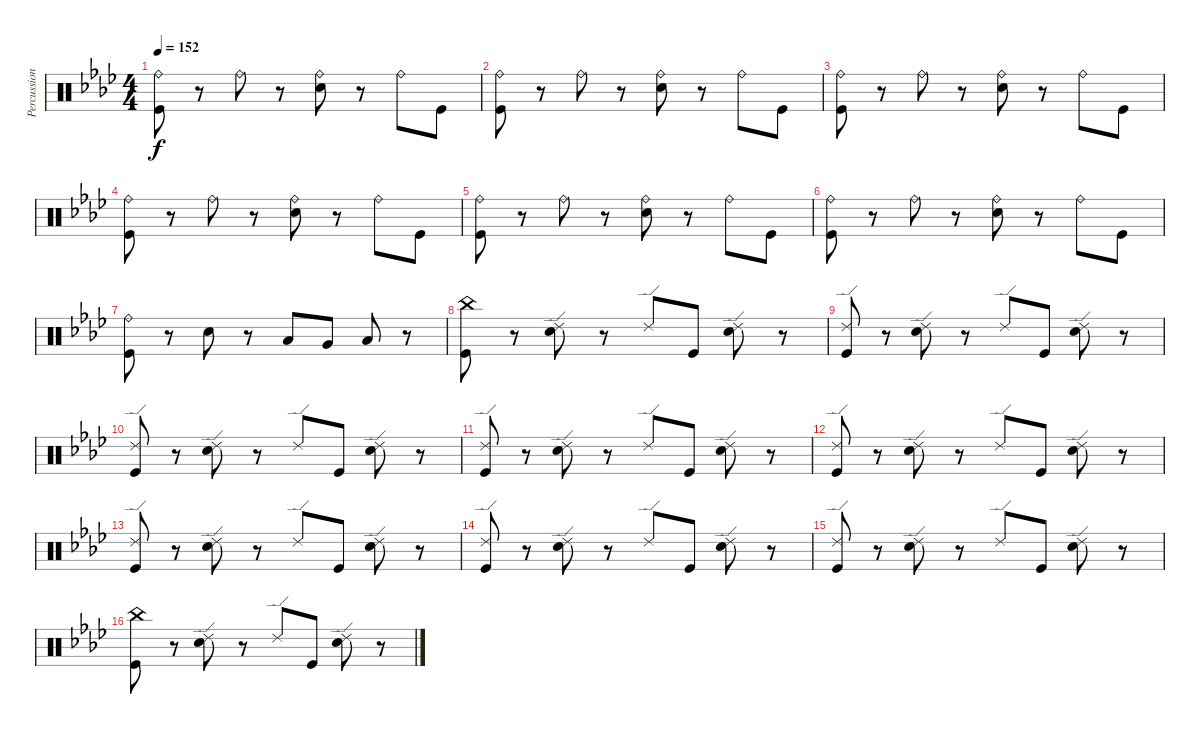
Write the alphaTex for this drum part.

\track ("Percussion" "Percussion") {instrument percussion}
\staff {score}
\articulation defaults
\ts (4 4)
\tempo 152
\clef neutral
\ks fminor
("Ride (bell)" "Kick (hit)").8{dy f} r.8 "Ride (bell)".8 r.8 ("Ride (bell)" "Snare (hit) 2").8 r.8 "Ride (bell)".8 "Kick (hit)".8 |
("Ride (bell)" "Kick (hit)").8 r.8 "Ride (bell)".8 r.8 ("Ride (bell)" "Snare (hit) 2").8 r.8 "Ride (bell)".8 "Kick (hit)".8 |
("Ride (bell)" "Kick (hit)").8 r.8 "Ride (bell)".8 r.8 ("Ride (bell)" "Snare (hit) 2").8 r.8 "Ride (bell)".8 "Kick (hit)".8 |
("Ride (bell)" "Kick (hit)").8 r.8 "Ride (bell)".8 r.8 ("Ride (bell)" "Snare (hit) 2").8 r.8 "Ride (bell)".8 "Kick (hit)".8 |
("Ride (bell)" "Kick (hit)").8 r.8 "Ride (bell)".8 r.8 ("Ride (bell)" "Snare (hit) 2").8 r.8 "Ride (bell)".8 "Kick (hit)".8 |
("Ride (bell)" "Kick (hit)").8 r.8 "Ride (bell)".8 r.8 ("Ride (bell)" "Snare (hit) 2").8 r.8 "Ride (bell)".8 "Kick (hit)".8 |
("Ride (bell)" "Kick (hit)").8 r.8 "Snare (hit) 2".8 r.8 "Low Tom (hit)".8 "Very Low Tom (hit)".8 "Low Floor Tom (hit)".8 r.8 |
("China (hit)" "Kick (hit)").8 r.8 ("Ride (edge) 2" "Snare (hit) 2").8 r.8 "Ride (edge) 2".8 "Kick (hit)".8 ("Ride (edge) 2" "Snare (hit) 2").8 r.8 |
("Ride (edge) 2" "Kick (hit)").8 r.8 ("Ride (edge) 2" "Snare (hit) 2").8 r.8 "Ride (edge) 2".8 "Kick (hit)".8 ("Ride (edge) 2" "Snare (hit) 2").8 r.8 |
("Ride (edge) 2" "Kick (hit)").8 r.8 ("Ride (edge) 2" "Snare (hit) 2").8 r.8 "Ride (edge) 2".8 "Kick (hit)".8 ("Ride (edge) 2" "Snare (hit) 2").8 r.8 |
("Ride (edge) 2" "Kick (hit)").8 r.8 ("Ride (edge) 2" "Snare (hit) 2").8 r.8 "Ride (edge) 2".8 "Kick (hit)".8 ("Ride (edge) 2" "Snare (hit) 2").8 r.8 |
("Ride (edge) 2" "Kick (hit)").8 r.8 ("Ride (edge) 2" "Snare (hit) 2").8 r.8 "Ride (edge) 2".8 "Kick (hit)".8 ("Ride (edge) 2" "Snare (hit) 2").8 r.8 |
("Ride (edge) 2" "Kick (hit)").8 r.8 ("Ride (edge) 2" "Snare (hit) 2").8 r.8 "Ride (edge) 2".8 "Kick (hit)".8 ("Ride (edge) 2" "Snare (hit) 2").8 r.8 |
("Ride (edge) 2" "Kick (hit)").8 r.8 ("Ride (edge) 2" "Snare (hit) 2").8 r.8 "Ride (edge) 2".8 "Kick (hit)".8 ("Ride (edge) 2" "Snare (hit) 2").8 r.8 |
("Ride (edge) 2" "Kick (hit)").8 r.8 ("Ride (edge) 2" "Snare (hit) 2").8 r.8 "Ride (edge) 2".8 "Kick (hit)".8 ("Ride (edge) 2" "Snare (hit) 2").8 r.8 |
("China (hit)" "Kick (hit)").8 r.8 ("Ride (edge) 2" "Snare (hit) 2").8 r.8 "Ride (edge) 2".8 "Kick (hit)".8 ("Ride (edge) 2" "Snare (hit) 2").8 r.8
